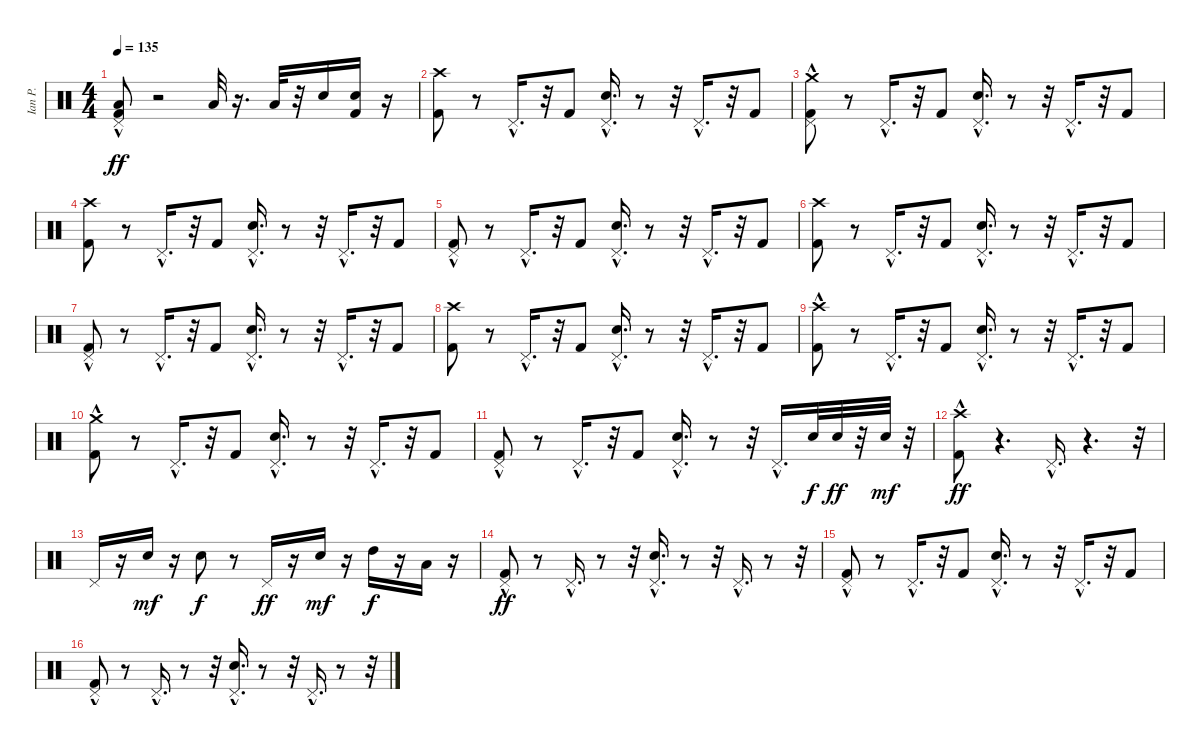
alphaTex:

\track ("Ian P." "Ian P.") {instrument percussion}
\staff {score}
\articulation defaults
\ts (4 4)
\tempo 135
\clef neutral
\ks c
("Low Floor Tom (hit)" "Kick (hit) 2" "Pedal Hi-Hat (hit)"{hac}).8{dy ff} r.2 "Low Tom (hit)".32 r.16{d} "Low Floor Tom (hit)".32 r.32 "Snare (hit) 2".16 ("Snare (hit) 2" "Kick (hit) 2").16 r.16 |
("Crash high (hit)" "Kick (hit) 2").8 r.8 "Pedal Hi-Hat (hit)"{hac}.16{d} r.32 "Kick (hit) 2".8 ("Snare (hit) 2"{hac} "Pedal Hi-Hat (hit)"{hac}).16{d} r.8 r.32 "Pedal Hi-Hat (hit)"{hac}.16{d} r.32 "Kick (hit) 2".8 |
("Kick (hit) 2" "Pedal Hi-Hat (hit)"{hac} "Crash medium (hit)").8 r.8 "Pedal Hi-Hat (hit)"{hac}.16{d} r.32 "Kick (hit) 2".8 ("Snare (hit) 2"{hac} "Pedal Hi-Hat (hit)"{hac}).16{d} r.8 r.32 "Pedal Hi-Hat (hit)"{hac}.16{d} r.32 "Kick (hit) 2".8 |
("Crash high (hit)" "Kick (hit) 2").8 r.8 "Pedal Hi-Hat (hit)"{hac}.16{d} r.32 "Kick (hit) 2".8 ("Snare (hit) 2"{hac} "Pedal Hi-Hat (hit)"{hac}).16{d} r.8 r.32 "Pedal Hi-Hat (hit)"{hac}.16{d} r.32 "Kick (hit) 2".8 |
("Kick (hit) 2" "Pedal Hi-Hat (hit)"{hac}).8 r.8 "Pedal Hi-Hat (hit)"{hac}.16{d} r.32 "Kick (hit) 2".8 ("Snare (hit) 2"{hac} "Pedal Hi-Hat (hit)"{hac}).16{d} r.8 r.32 "Pedal Hi-Hat (hit)"{hac}.16{d} r.32 "Kick (hit) 2".8 |
("Crash high (hit)" "Kick (hit) 2").8 r.8 "Pedal Hi-Hat (hit)"{hac}.16{d} r.32 "Kick (hit) 2".8 ("Snare (hit) 2"{hac} "Pedal Hi-Hat (hit)"{hac}).16{d} r.8 r.32 "Pedal Hi-Hat (hit)"{hac}.16{d} r.32 "Kick (hit) 2".8 |
("Kick (hit) 2" "Pedal Hi-Hat (hit)"{hac}).8 r.8 "Pedal Hi-Hat (hit)"{hac}.16{d} r.32 "Kick (hit) 2".8 ("Snare (hit) 2"{hac} "Pedal Hi-Hat (hit)"{hac}).16{d} r.8 r.32 "Pedal Hi-Hat (hit)"{hac}.16{d} r.32 "Kick (hit) 2".8 |
("Crash high (hit)" "Kick (hit) 2").8 r.8 "Pedal Hi-Hat (hit)"{hac}.16{d} r.32 "Kick (hit) 2".8 ("Snare (hit) 2"{hac} "Pedal Hi-Hat (hit)"{hac}).16{d} r.8 r.32 "Pedal Hi-Hat (hit)"{hac}.16{d} r.32 "Kick (hit) 2".8 |
("Kick (hit) 2" "Crash high (hit)"{hac}).8 r.8 "Pedal Hi-Hat (hit)"{hac}.16{d} r.32 "Kick (hit) 2".8 ("Snare (hit) 2"{hac} "Pedal Hi-Hat (hit)"{hac}).16{d} r.8 r.32 "Pedal Hi-Hat (hit)"{hac}.16{d} r.32 "Kick (hit) 2".8 |
("Kick (hit) 2" "Crash medium (hit)"{hac}).8 r.8 "Pedal Hi-Hat (hit)"{hac}.16{d} r.32 "Kick (hit) 2".8 ("Snare (hit) 2"{hac} "Pedal Hi-Hat (hit)"{hac}).16{d} r.8 r.32 "Pedal Hi-Hat (hit)"{hac}.16{d} r.32 "Kick (hit) 2".8 |
("Kick (hit) 2" "Pedal Hi-Hat (hit)"{hac}).8 r.8 "Pedal Hi-Hat (hit)"{hac}.16{d} r.32 "Kick (hit) 2".8 ("Snare (hit) 2"{hac} "Pedal Hi-Hat (hit)"{hac}).16{d} r.8 r.32 "Pedal Hi-Hat (hit)"{hac}.16{d} "Snare (hit) 2".32{dy f} "Snare (hit) 2".32{dy ff} r.32 "Snare (hit) 2".32{dy mf} r.32 |
("Kick (hit) 2" "Crash high (hit)"{hac}).8{dy ff} r.4{d} "Pedal Hi-Hat (hit)"{hac}.16{d} r.4{d} r.32 |
"Pedal Hi-Hat (hit)".16 r.16 "Snare (hit) 2".16{dy mf} r.16 "Snare (hit) 2".8{dy f} r.8 "Pedal Hi-Hat (hit)".16{dy ff} r.16 "Snare (hit) 2".16{dy mf} r.16 "High Tom (hit)".16{dy f} r.16 "Low Floor Tom (hit)".16 r.16 |
("Kick (hit) 2" "Pedal Hi-Hat (hit)"{hac}).8{dy ff} r.8 "Pedal Hi-Hat (hit)"{hac}.16{d} r.8 r.32 ("Snare (hit) 2"{hac} "Pedal Hi-Hat (hit)"{hac}).16{d} r.8 r.32 "Pedal Hi-Hat (hit)"{hac}.16{d} r.8 r.32 |
("Kick (hit) 2" "Pedal Hi-Hat (hit)"{hac}).8 r.8 "Pedal Hi-Hat (hit)"{hac}.16{d} r.32 "Kick (hit) 2".8 ("Snare (hit) 2"{hac} "Pedal Hi-Hat (hit)"{hac}).16{d} r.8 r.32 "Pedal Hi-Hat (hit)"{hac}.16{d} r.32 "Kick (hit) 2".8 |
("Kick (hit) 2" "Pedal Hi-Hat (hit)"{hac}).8 r.8 "Pedal Hi-Hat (hit)"{hac}.16{d} r.8 r.32 ("Snare (hit) 2"{hac} "Pedal Hi-Hat (hit)"{hac}).16{d} r.8 r.32 "Pedal Hi-Hat (hit)"{hac}.16{d} r.8 r.32
